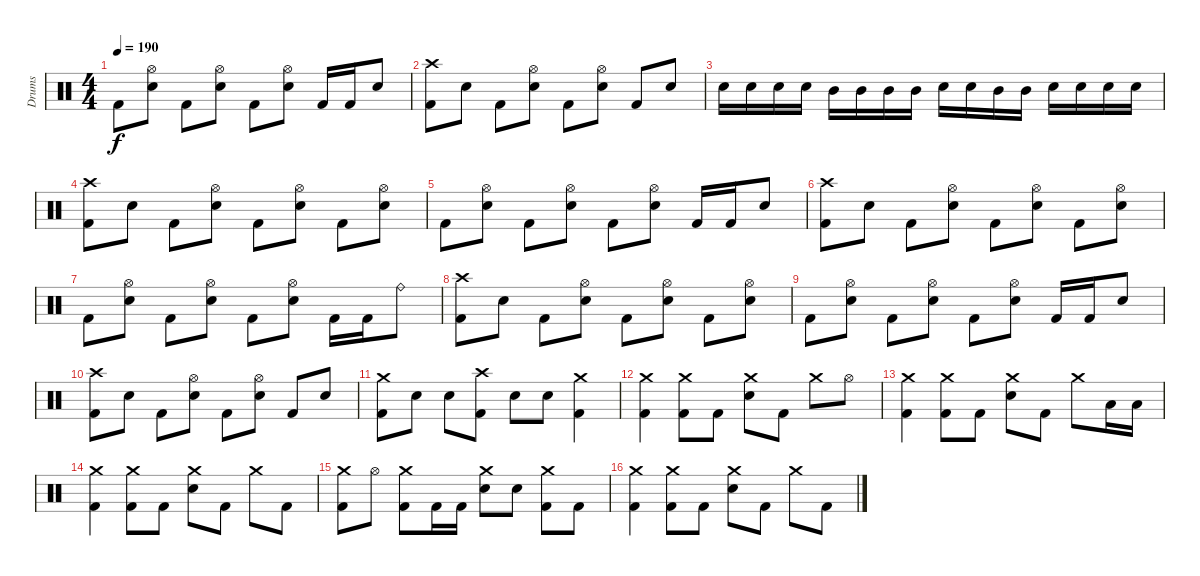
\track ("Drums" "Drums") {instrument percussion}
\staff {score}
\articulation defaults
\ts (4 4)
\tempo 190
\clef neutral
\ks c "Kick (hit) 2".8{dy f}
("Hi-Hat (open)" "Electric Snare (hit)").8 "Kick (hit) 2".8 ("Hi-Hat (open)" "Electric Snare (hit)").8 "Kick (hit) 2".8 ("Hi-Hat (open)" "Electric Snare (hit)").8 "Kick (hit) 2".16 "Kick (hit) 2".16 "Electric Snare (hit)".8 |
("Crash high (hit)" "Kick (hit) 2").8 "Electric Snare (hit)".8 "Kick (hit) 2".8 ("Hi-Hat (open)" "Electric Snare (hit)").8 "Kick (hit) 2".8 ("Hi-Hat (open)" "Electric Snare (hit)").8 "Kick (hit) 2".8 "Electric Snare (hit)".8 |
"Electric Snare (hit)".16 "Electric Snare (hit)".16 "Electric Snare (hit)".16 "Electric Snare (hit)".16 "Mid Tom (hit)".16 "Mid Tom (hit)".16 "Mid Tom (hit)".16 "Mid Tom (hit)".16 "Electric Snare (hit)".16 "Electric Snare (hit)".16 "Mid Tom (hit)".16 "Mid Tom (hit)".16 "Electric Snare (hit)".16 "Electric Snare (hit)".16 "Electric Snare (hit)".16 "Electric Snare (hit)".16 |
("Crash high (hit)" "Kick (hit) 2").8 "Electric Snare (hit)".8 "Kick (hit) 2".8 ("Hi-Hat (open)" "Electric Snare (hit)").8 "Kick (hit) 2".8 ("Hi-Hat (open)" "Electric Snare (hit)").8 "Kick (hit) 2".8 ("Hi-Hat (open)" "Electric Snare (hit)").8 |
"Kick (hit) 2".8 ("Hi-Hat (open)" "Electric Snare (hit)").8 "Kick (hit) 2".8 ("Hi-Hat (open)" "Electric Snare (hit)").8 "Kick (hit) 2".8 ("Hi-Hat (open)" "Electric Snare (hit)").8 "Kick (hit) 2".16 "Kick (hit) 2".16 "Electric Snare (hit)".8 |
("Crash high (hit)" "Kick (hit) 2").8 "Electric Snare (hit)".8 "Kick (hit) 2".8 ("Hi-Hat (open)" "Electric Snare (hit)").8 "Kick (hit) 2".8 ("Hi-Hat (open)" "Electric Snare (hit)").8 "Kick (hit) 2".8 ("Hi-Hat (open)" "Electric Snare (hit)").8 |
"Kick (hit) 2".8 ("Hi-Hat (open)" "Electric Snare (hit)").8 "Kick (hit) 2".8 ("Hi-Hat (open)" "Electric Snare (hit)").8 "Kick (hit) 2".8 ("Hi-Hat (open)" "Electric Snare (hit)").8 "Kick (hit) 2".16 "Kick (hit) 2".16 "Ride (bell)".8 |
("Crash high (hit)" "Kick (hit) 2").8 "Electric Snare (hit)".8 "Kick (hit) 2".8 ("Hi-Hat (open)" "Electric Snare (hit)").8 "Kick (hit) 2".8 ("Hi-Hat (open)" "Electric Snare (hit)").8 "Kick (hit) 2".8 ("Hi-Hat (open)" "Electric Snare (hit)").8 |
"Kick (hit) 2".8 ("Hi-Hat (open)" "Electric Snare (hit)").8 "Kick (hit) 2".8 ("Hi-Hat (open)" "Electric Snare (hit)").8 "Kick (hit) 2".8 ("Hi-Hat (open)" "Electric Snare (hit)").8 "Kick (hit) 2".16 "Kick (hit) 2".16 "Electric Snare (hit)".8 |
("Crash high (hit)" "Kick (hit) 2").8 "Electric Snare (hit)".8 "Kick (hit) 2".8 ("Hi-Hat (open)" "Electric Snare (hit)").8 "Kick (hit) 2".8 ("Hi-Hat (open)" "Electric Snare (hit)").8 "Kick (hit) 2".8 "Electric Snare (hit)".8 |
("Crash medium (hit)" "Kick (hit) 2").8 "Electric Snare (hit)".8 "Electric Snare (hit)".8 ("Crash high (hit)" "Kick (hit) 2").8 "Electric Snare (hit)".8 "Electric Snare (hit)".8 ("Crash medium (hit)" "Kick (hit) 2").4 |
("Crash medium (hit)" "Kick (hit) 2").4 ("Crash medium (hit)" "Kick (hit) 2").8 "Kick (hit) 2".8 ("Crash medium (hit)" "Electric Snare (hit)").8 "Kick (hit) 2".8 "Crash medium (hit)".8 "Hi-Hat (open)".8 |
("Crash medium (hit)" "Kick (hit) 2").4 ("Crash medium (hit)" "Kick (hit) 2").8 "Kick (hit) 2".8 ("Crash medium (hit)" "Electric Snare (hit)").8 "Kick (hit) 2".8 "Crash medium (hit)".8 "Low Tom (hit)".16 "Low Tom (hit)".16 |
("Crash medium (hit)" "Kick (hit) 2").4 ("Crash medium (hit)" "Kick (hit) 2").8 "Kick (hit) 2".8 ("Crash medium (hit)" "Electric Snare (hit)").8 "Kick (hit) 2".8 "Crash medium (hit)".8 "Kick (hit) 2".8 |
("Crash medium (hit)" "Kick (hit) 2").8 "Hi-Hat (open)".8 ("Crash medium (hit)" "Kick (hit) 2").8 "Kick (hit) 2".16 "Kick (hit) 2".16 ("Crash medium (hit)" "Electric Snare (hit)").8 "Electric Snare (hit)".8 ("Crash medium (hit)" "Kick (hit) 2").8 "Kick (hit) 2".8 |
("Crash medium (hit)" "Kick (hit) 2").4 ("Crash medium (hit)" "Kick (hit) 2").8 "Kick (hit) 2".8 ("Crash medium (hit)" "Electric Snare (hit)").8 "Kick (hit) 2".8 "Crash medium (hit)".8 "Kick (hit) 2".8
